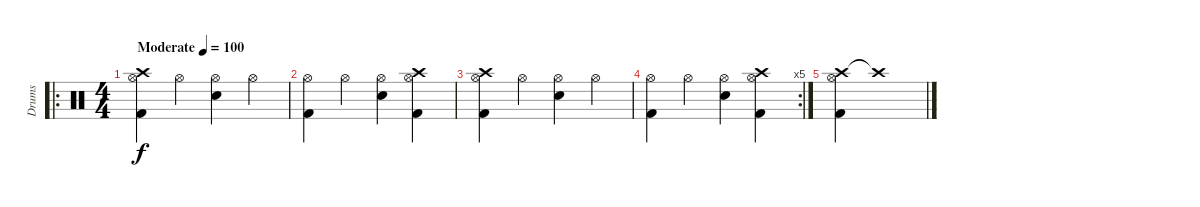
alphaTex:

\track ("Drums" "Drums") {instrument percussion}
\staff {score}
\articulation defaults
\ro
\ts (4 4)
\tempo (100 "Moderate")
\clef neutral
\ks c
("Crash high (hit)" "Kick (hit) 2" "Hi-Hat (open)").4{dy f} "Hi-Hat (open)".4 ("Snare (hit) 2" "Hi-Hat (open)").4 "Hi-Hat (open)".4 |
("Kick (hit) 2" "Hi-Hat (open)").4 "Hi-Hat (open)".4 ("Snare (hit) 2" "Hi-Hat (open)").4 ("Crash high (hit)" "Kick (hit) 2" "Hi-Hat (open)").4 |
("Crash high (hit)" "Kick (hit) 2" "Hi-Hat (open)").4 "Hi-Hat (open)".4 ("Snare (hit) 2" "Hi-Hat (open)").4 "Hi-Hat (open)".4 |
\rc 5
("Kick (hit) 2" "Hi-Hat (open)").4 "Hi-Hat (open)".4 ("Snare (hit) 2" "Hi-Hat (open)").4 ("Crash high (hit)" "Kick (hit) 2" "Hi-Hat (open)").4 |
("Crash high (hit)" "Kick (hit) 2" "Hi-Hat (open)").4 "Crash high (hit)"{t}.1
